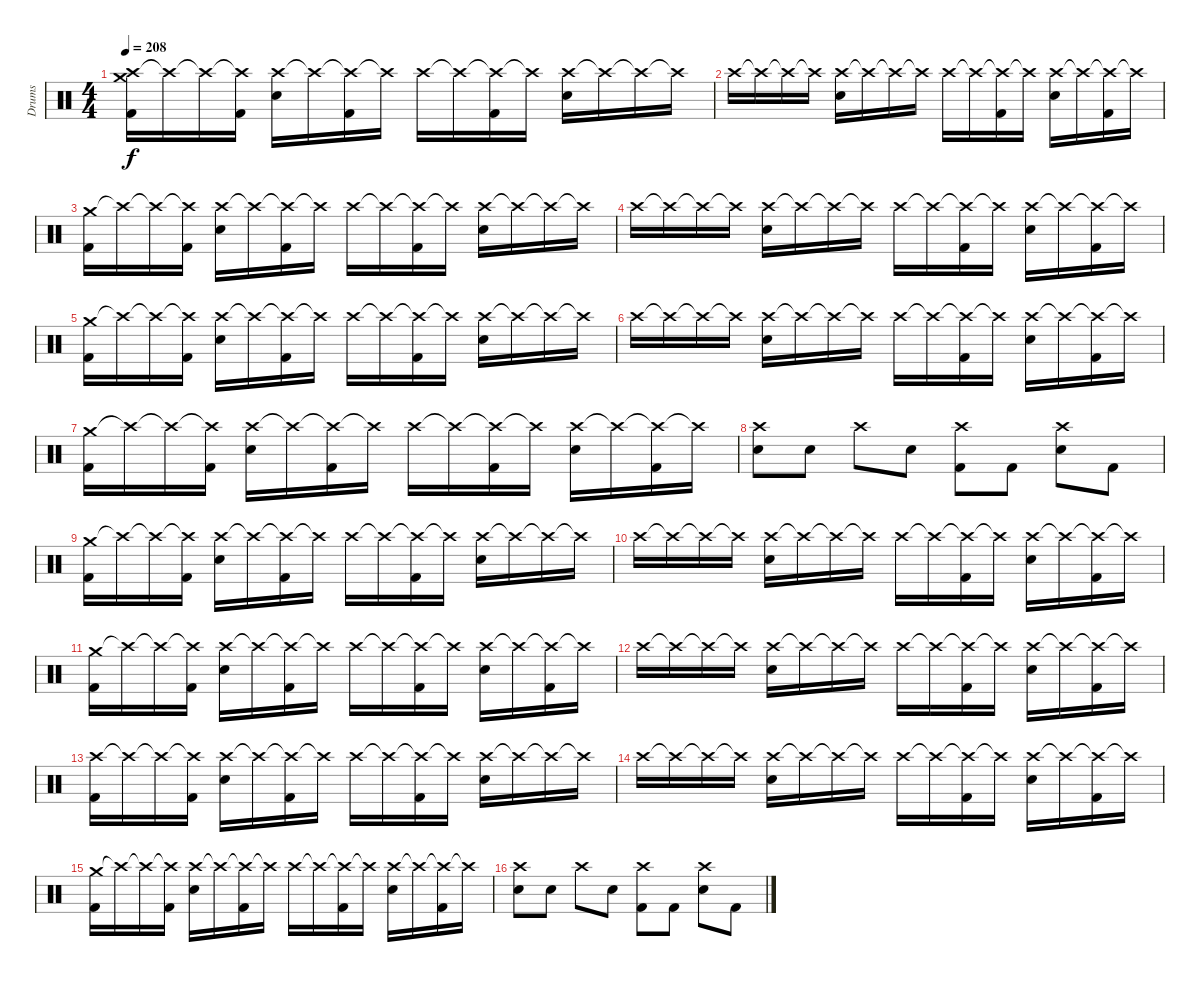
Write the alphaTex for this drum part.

\track ("Drums" "Drums") {instrument percussion}
\staff {score}
\articulation defaults
\ts (4 4)
\tempo 208
\clef neutral
\ks c
("Crash high (hit)" "Crash medium (hit)" "Kick (hit) 2").16{dy f} "Crash high (hit)"{t}.16 "Crash high (hit)"{t}.16 ("Crash high (hit)"{t} "Kick (hit) 2").16 ("Crash high (hit)" "Electric Snare (hit)").16 "Crash high (hit)"{t}.16 ("Crash high (hit)"{t} "Kick (hit) 2").16 "Crash high (hit)"{t}.16 "Crash high (hit)".16 "Crash high (hit)"{t}.16 ("Crash high (hit)"{t} "Kick (hit) 2").16 "Crash high (hit)"{t}.16 ("Crash high (hit)" "Electric Snare (hit)").16 "Crash high (hit)"{t}.16 "Crash high (hit)"{t}.16 "Crash high (hit)"{t}.16 |
"Crash high (hit)".16 "Crash high (hit)"{t}.16 "Crash high (hit)"{t}.16 "Crash high (hit)"{t}.16 ("Crash high (hit)" "Electric Snare (hit)").16 "Crash high (hit)"{t}.16 "Crash high (hit)"{t}.16 "Crash high (hit)"{t}.16 "Crash high (hit)".16 "Crash high (hit)"{t}.16 ("Crash high (hit)"{t} "Kick (hit) 2").16 "Crash high (hit)"{t}.16 ("Crash high (hit)" "Electric Snare (hit)").16 "Crash high (hit)"{t}.16 ("Crash high (hit)"{t} "Kick (hit) 2").16 "Crash high (hit)"{t}.16 |
("Crash medium (hit)" "Kick (hit) 2").16 "Crash high (hit)"{t}.16 "Crash high (hit)"{t}.16 ("Crash high (hit)"{t} "Kick (hit) 2").16 ("Crash high (hit)" "Electric Snare (hit)").16 "Crash high (hit)"{t}.16 ("Crash high (hit)"{t} "Kick (hit) 2").16 "Crash high (hit)"{t}.16 "Crash high (hit)".16 "Crash high (hit)"{t}.16 ("Crash high (hit)"{t} "Kick (hit) 2").16 "Crash high (hit)"{t}.16 ("Crash high (hit)" "Electric Snare (hit)").16 "Crash high (hit)"{t}.16 "Crash high (hit)"{t}.16 "Crash high (hit)"{t}.16 |
"Crash high (hit)".16 "Crash high (hit)"{t}.16 "Crash high (hit)"{t}.16 "Crash high (hit)"{t}.16 ("Crash high (hit)" "Electric Snare (hit)").16 "Crash high (hit)"{t}.16 "Crash high (hit)"{t}.16 "Crash high (hit)"{t}.16 "Crash high (hit)".16 "Crash high (hit)"{t}.16 ("Crash high (hit)"{t} "Kick (hit) 2").16 "Crash high (hit)"{t}.16 ("Crash high (hit)" "Electric Snare (hit)").16 "Crash high (hit)"{t}.16 ("Crash high (hit)"{t} "Kick (hit) 2").16 "Crash high (hit)"{t}.16 |
("Crash medium (hit)" "Kick (hit) 2").16 "Crash high (hit)"{t}.16 "Crash high (hit)"{t}.16 ("Crash high (hit)"{t} "Kick (hit) 2").16 ("Crash high (hit)" "Electric Snare (hit)").16 "Crash high (hit)"{t}.16 ("Crash high (hit)"{t} "Kick (hit) 2").16 "Crash high (hit)"{t}.16 "Crash high (hit)".16 "Crash high (hit)"{t}.16 ("Crash high (hit)"{t} "Kick (hit) 2").16 "Crash high (hit)"{t}.16 ("Crash high (hit)" "Electric Snare (hit)").16 "Crash high (hit)"{t}.16 "Crash high (hit)"{t}.16 "Crash high (hit)"{t}.16 |
"Crash high (hit)".16 "Crash high (hit)"{t}.16 "Crash high (hit)"{t}.16 "Crash high (hit)"{t}.16 ("Crash high (hit)" "Electric Snare (hit)").16 "Crash high (hit)"{t}.16 "Crash high (hit)"{t}.16 "Crash high (hit)"{t}.16 "Crash high (hit)".16 "Crash high (hit)"{t}.16 ("Crash high (hit)"{t} "Kick (hit) 2").16 "Crash high (hit)"{t}.16 ("Crash high (hit)" "Electric Snare (hit)").16 "Crash high (hit)"{t}.16 ("Crash high (hit)"{t} "Kick (hit) 2").16 "Crash high (hit)"{t}.16 |
("Crash medium (hit)" "Kick (hit) 2").16 "Crash high (hit)"{t}.16 "Crash high (hit)"{t}.16 ("Crash high (hit)"{t} "Kick (hit) 2").16 ("Crash high (hit)" "Electric Snare (hit)").16 "Crash high (hit)"{t}.16 ("Crash high (hit)"{t} "Kick (hit) 2").16 "Crash high (hit)"{t}.16 "Crash high (hit)".16 "Crash high (hit)"{t}.16 ("Crash high (hit)"{t} "Kick (hit) 2").16 "Crash high (hit)"{t}.16 ("Crash high (hit)" "Electric Snare (hit)").16 "Crash high (hit)"{t}.16 ("Crash high (hit)"{t} "Kick (hit) 2").16 "Crash high (hit)"{t}.16 |
("Crash high (hit)" "Electric Snare (hit)").8 "Electric Snare (hit)".8 "Crash high (hit)".8 "Electric Snare (hit)".8 ("Crash high (hit)" "Kick (hit) 2").8 "Kick (hit) 2".8 ("Crash high (hit)" "Electric Snare (hit)").8 "Kick (hit) 2".8 |
("Crash medium (hit)" "Kick (hit) 2").16 "Crash high (hit)"{t}.16 "Crash high (hit)"{t}.16 ("Crash high (hit)"{t} "Kick (hit) 2").16 ("Crash high (hit)" "Electric Snare (hit)").16 "Crash high (hit)"{t}.16 ("Crash high (hit)"{t} "Kick (hit) 2").16 "Crash high (hit)"{t}.16 "Crash high (hit)".16 "Crash high (hit)"{t}.16 ("Crash high (hit)"{t} "Kick (hit) 2").16 "Crash high (hit)"{t}.16 ("Crash high (hit)" "Electric Snare (hit)").16 "Crash high (hit)"{t}.16 "Crash high (hit)"{t}.16 "Crash high (hit)"{t}.16 |
"Crash high (hit)".16 "Crash high (hit)"{t}.16 "Crash high (hit)"{t}.16 "Crash high (hit)"{t}.16 ("Crash high (hit)" "Electric Snare (hit)").16 "Crash high (hit)"{t}.16 "Crash high (hit)"{t}.16 "Crash high (hit)"{t}.16 "Crash high (hit)".16 "Crash high (hit)"{t}.16 ("Crash high (hit)"{t} "Kick (hit) 2").16 "Crash high (hit)"{t}.16 ("Crash high (hit)" "Electric Snare (hit)").16 "Crash high (hit)"{t}.16 ("Crash high (hit)"{t} "Kick (hit) 2").16 "Crash high (hit)"{t}.16 |
("Crash medium (hit)" "Kick (hit) 2").16 "Crash high (hit)"{t}.16 "Crash high (hit)"{t}.16 ("Crash high (hit)"{t} "Kick (hit) 2").16 ("Crash high (hit)" "Electric Snare (hit)").16 "Crash high (hit)"{t}.16 ("Crash high (hit)"{t} "Kick (hit) 2").16 "Crash high (hit)"{t}.16 "Crash high (hit)".16 "Crash high (hit)"{t}.16 ("Crash high (hit)"{t} "Kick (hit) 2").16 "Crash high (hit)"{t}.16 ("Crash high (hit)" "Electric Snare (hit)").16 "Crash high (hit)"{t}.16 ("Crash high (hit)"{t} "Kick (hit) 2").16 "Crash high (hit)"{t}.16 |
"Crash high (hit)".16 "Crash high (hit)"{t}.16 "Crash high (hit)"{t}.16 "Crash high (hit)"{t}.16 ("Crash high (hit)" "Electric Snare (hit)").16 "Crash high (hit)"{t}.16 "Crash high (hit)"{t}.16 "Crash high (hit)"{t}.16 "Crash high (hit)".16 "Crash high (hit)"{t}.16 ("Crash high (hit)"{t} "Kick (hit) 2").16 "Crash high (hit)"{t}.16 ("Crash high (hit)" "Electric Snare (hit)").16 "Crash high (hit)"{t}.16 ("Crash high (hit)"{t} "Kick (hit) 2").16 "Crash high (hit)"{t}.16 |
("Crash high (hit)" "Kick (hit) 2").16 "Crash high (hit)"{t}.16 "Crash high (hit)"{t}.16 ("Crash high (hit)"{t} "Kick (hit) 2").16 ("Crash high (hit)" "Electric Snare (hit)").16 "Crash high (hit)"{t}.16 ("Crash high (hit)"{t} "Kick (hit) 2").16 "Crash high (hit)"{t}.16 "Crash high (hit)".16 "Crash high (hit)"{t}.16 ("Crash high (hit)"{t} "Kick (hit) 2").16 "Crash high (hit)"{t}.16 ("Crash high (hit)" "Electric Snare (hit)").16 "Crash high (hit)"{t}.16 "Crash high (hit)"{t}.16 "Crash high (hit)"{t}.16 |
"Crash high (hit)".16 "Crash high (hit)"{t}.16 "Crash high (hit)"{t}.16 "Crash high (hit)"{t}.16 ("Crash high (hit)" "Electric Snare (hit)").16 "Crash high (hit)"{t}.16 "Crash high (hit)"{t}.16 "Crash high (hit)"{t}.16 "Crash high (hit)".16 "Crash high (hit)"{t}.16 ("Crash high (hit)"{t} "Kick (hit) 2").16 "Crash high (hit)"{t}.16 ("Crash high (hit)" "Electric Snare (hit)").16 "Crash high (hit)"{t}.16 ("Crash high (hit)"{t} "Kick (hit) 2").16 "Crash high (hit)"{t}.16 |
("Crash medium (hit)" "Kick (hit) 2").16 "Crash high (hit)"{t}.16 "Crash high (hit)"{t}.16 ("Crash high (hit)"{t} "Kick (hit) 2").16 ("Crash high (hit)" "Electric Snare (hit)").16 "Crash high (hit)"{t}.16 ("Crash high (hit)"{t} "Kick (hit) 2").16 "Crash high (hit)"{t}.16 "Crash high (hit)".16 "Crash high (hit)"{t}.16 ("Crash high (hit)"{t} "Kick (hit) 2").16 "Crash high (hit)"{t}.16 ("Crash high (hit)" "Electric Snare (hit)").16 "Crash high (hit)"{t}.16 ("Crash high (hit)"{t} "Kick (hit) 2").16 "Crash high (hit)"{t}.16 |
("Crash high (hit)" "Electric Snare (hit)").8 "Electric Snare (hit)".8 "Crash high (hit)".8 "Electric Snare (hit)".8 ("Crash high (hit)" "Kick (hit) 2").8 "Kick (hit) 2".8 ("Crash high (hit)" "Electric Snare (hit)").8 "Kick (hit) 2".8
